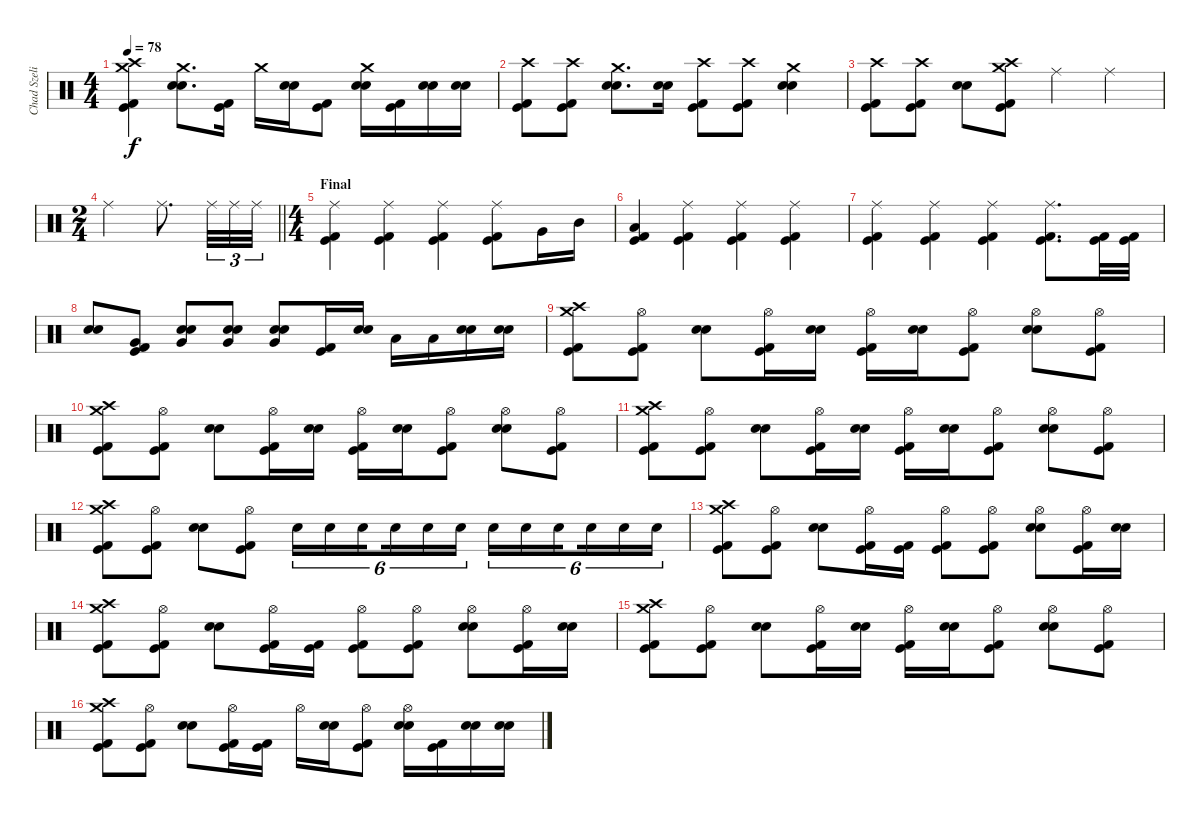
\track ("Chad Szeliga" "Chad Szeli") {instrument percussion}
\staff {score}
\articulation defaults
\ts (4 4)
\tempo 78
\clef neutral
\ks c
("Crash high (hit)" "Kick (hit) 2" "Kick (hit)" "Crash medium (hit)").4{dy f} ("Crash medium (hit)" "Snare (hit) 2" "Snare (hit) 2").8{d} ("Kick (hit) 2" "Kick (hit)").16 "Crash medium (hit)".16 ("Snare (hit) 2" "Snare (hit) 2").16 ("Kick (hit) 2" "Kick (hit)").8 ("Crash medium (hit)" "Snare (hit) 2" "Snare (hit) 2").16 ("Kick (hit) 2" "Kick (hit)").16 ("Snare (hit) 2" "Snare (hit) 2").16 ("Snare (hit) 2" "Snare (hit) 2").16 |
("Crash high (hit)" "Kick (hit) 2" "Kick (hit)").8 ("Crash high (hit)" "Kick (hit) 2" "Kick (hit)").8 ("Crash medium (hit)" "Snare (hit) 2" "Snare (hit) 2").8{d} ("Snare (hit) 2" "Snare (hit) 2").16 ("Crash high (hit)" "Kick (hit) 2" "Kick (hit)").8 ("Crash high (hit)" "Kick (hit) 2" "Kick (hit)").8 ("Crash medium (hit)" "Snare (hit) 2" "Snare (hit) 2").4 |
("Crash high (hit)" "Kick (hit) 2" "Kick (hit)").8 ("Crash high (hit)" "Kick (hit) 2" "Kick (hit)").8 ("Snare (hit) 2" "Snare (hit) 2").8 ("Crash high (hit)" "Kick (hit) 2" "Kick (hit)" "Crash medium (hit)").8 "Ride (middle)".4 "Ride (middle)".4 |
\ts (2 4)
\barLineRight lightlight "Ride (middle)".4 "Ride (middle)".8{d} "Ride (middle)".32{tu (3 2)} "Ride (middle)".32{tu (3 2)} "Ride (middle)".32{tu (3 2)}
|
\ts (4 4)
\section ("" "Final")
("Ride (middle)" "Kick (hit) 2" "Kick (hit)").4 ("Ride (middle)" "Kick (hit) 2" "Kick (hit)").4 ("Ride (middle)" "Kick (hit) 2" "Kick (hit)").4 ("Ride (middle)" "Kick (hit) 2" "Kick (hit)").8 "Very Low Tom (hit)".16 "Mid Tom (hit)".16 |
("Kick (hit) 2" "Kick (hit)" "Low Tom (hit)").4 ("Ride (middle)" "Kick (hit) 2" "Kick (hit)").4 ("Ride (middle)" "Kick (hit) 2" "Kick (hit)").4 ("Ride (middle)" "Kick (hit) 2" "Kick (hit)").4 |
("Ride (middle)" "Kick (hit) 2" "Kick (hit)").4 ("Ride (middle)" "Kick (hit) 2" "Kick (hit)").4 ("Ride (middle)" "Kick (hit) 2" "Kick (hit)").4 ("Ride (middle)" "Kick (hit) 2" "Kick (hit)").8{d} ("Kick (hit) 2" "Kick (hit)").32 ("Kick (hit) 2" "Kick (hit)").32 |
("Snare (hit) 2" "Snare (hit) 2").8 ("Kick (hit) 2" "Kick (hit)" "Very Low Tom (hit)").8 ("Snare (hit) 2" "Snare (hit) 2" "Very Low Tom (hit)").8 ("Snare (hit) 2" "Snare (hit) 2" "Very Low Tom (hit)").8 ("Snare (hit) 2" "Snare (hit) 2" "Very Low Tom (hit)").8 ("Kick (hit) 2" "Kick (hit)").16 ("Snare (hit) 2" "Snare (hit) 2").16 "Low Tom (hit)".16 "Low Tom (hit)".16 ("Snare (hit) 2" "Snare (hit) 2").16 ("Snare (hit) 2" "Snare (hit) 2").16 |
("Crash high (hit)" "Kick (hit) 2" "Kick (hit)" "Crash medium (hit)").8 ("Kick (hit) 2" "Kick (hit)" "Hi-Hat (open)").8 ("Snare (hit) 2" "Snare (hit) 2").8 ("Kick (hit) 2" "Kick (hit)" "Hi-Hat (open)").16 ("Snare (hit) 2" "Snare (hit) 2").16 ("Kick (hit) 2" "Kick (hit)" "Hi-Hat (open)").16 ("Snare (hit) 2" "Snare (hit) 2").16 ("Kick (hit) 2" "Kick (hit)" "Hi-Hat (open)").8 ("Snare (hit) 2" "Snare (hit) 2" "Hi-Hat (open)").8 ("Kick (hit) 2" "Kick (hit)" "Hi-Hat (open)").8 |
("Crash high (hit)" "Kick (hit) 2" "Kick (hit)" "Crash medium (hit)").8 ("Kick (hit) 2" "Kick (hit)" "Hi-Hat (open)").8 ("Snare (hit) 2" "Snare (hit) 2").8 ("Kick (hit) 2" "Kick (hit)" "Hi-Hat (open)").16 ("Snare (hit) 2" "Snare (hit) 2").16 ("Kick (hit) 2" "Kick (hit)" "Hi-Hat (open)").16 ("Snare (hit) 2" "Snare (hit) 2").16 ("Kick (hit) 2" "Kick (hit)" "Hi-Hat (open)").8 ("Snare (hit) 2" "Snare (hit) 2" "Hi-Hat (open)").8 ("Kick (hit) 2" "Kick (hit)" "Hi-Hat (open)").8 |
("Crash high (hit)" "Kick (hit) 2" "Kick (hit)" "Crash medium (hit)").8 ("Kick (hit) 2" "Kick (hit)" "Hi-Hat (open)").8 ("Snare (hit) 2" "Snare (hit) 2").8 ("Kick (hit) 2" "Kick (hit)" "Hi-Hat (open)").16 ("Snare (hit) 2" "Snare (hit) 2").16 ("Kick (hit) 2" "Kick (hit)" "Hi-Hat (open)").16 ("Snare (hit) 2" "Snare (hit) 2").16 ("Kick (hit) 2" "Kick (hit)" "Hi-Hat (open)").8 ("Snare (hit) 2" "Snare (hit) 2" "Hi-Hat (open)").8 ("Kick (hit) 2" "Kick (hit)" "Hi-Hat (open)").8 |
("Crash high (hit)" "Kick (hit) 2" "Kick (hit)" "Crash medium (hit)").8 ("Kick (hit) 2" "Kick (hit)" "Hi-Hat (open)").8 ("Snare (hit) 2" "Snare (hit) 2").8 ("Kick (hit) 2" "Kick (hit)" "Hi-Hat (open)").8 "Snare (hit) 2".16{tu (6 4)} "Snare (hit) 2".16{tu (6 4)} "Snare (hit) 2".16{tu (6 4) beam splitsecondary} "Snare (hit) 2".16{tu (6 4)} "Snare (hit) 2".16{tu (6 4)} "Snare (hit) 2".16{tu (6 4)} "Snare (hit) 2".16{tu (6 4)} "Snare (hit) 2".16{tu (6 4)} "Snare (hit) 2".16{tu (6 4) beam splitsecondary} "Snare (hit) 2".16{tu (6 4)} "Snare (hit) 2".16{tu (6 4)} "Snare (hit) 2".16{tu (6 4)} |
("Crash high (hit)" "Kick (hit) 2" "Kick (hit)" "Crash medium (hit)").8 ("Kick (hit) 2" "Kick (hit)" "Hi-Hat (open)").8 ("Snare (hit) 2" "Snare (hit) 2").8 ("Kick (hit) 2" "Kick (hit)" "Hi-Hat (open)").16 ("Kick (hit) 2" "Kick (hit)").16 ("Kick (hit) 2" "Kick (hit)" "Hi-Hat (open)").8 ("Kick (hit) 2" "Kick (hit)" "Hi-Hat (open)").8 ("Snare (hit) 2" "Snare (hit) 2" "Hi-Hat (open)").8 ("Kick (hit) 2" "Kick (hit)" "Hi-Hat (open)").16 ("Snare (hit) 2" "Snare (hit) 2").16 |
("Crash high (hit)" "Kick (hit) 2" "Kick (hit)" "Crash medium (hit)").8 ("Kick (hit) 2" "Kick (hit)" "Hi-Hat (open)").8 ("Snare (hit) 2" "Snare (hit) 2").8 ("Kick (hit) 2" "Kick (hit)" "Hi-Hat (open)").16 ("Kick (hit) 2" "Kick (hit)").16 ("Kick (hit) 2" "Kick (hit)" "Hi-Hat (open)").8 ("Kick (hit) 2" "Kick (hit)" "Hi-Hat (open)").8 ("Snare (hit) 2" "Snare (hit) 2" "Hi-Hat (open)").8 ("Kick (hit) 2" "Kick (hit)" "Hi-Hat (open)").16 ("Snare (hit) 2" "Snare (hit) 2").16 |
("Crash high (hit)" "Kick (hit) 2" "Kick (hit)" "Crash medium (hit)").8 ("Kick (hit) 2" "Kick (hit)" "Hi-Hat (open)").8 ("Snare (hit) 2" "Snare (hit) 2").8 ("Kick (hit) 2" "Kick (hit)" "Hi-Hat (open)").16 ("Snare (hit) 2" "Snare (hit) 2").16 ("Kick (hit) 2" "Kick (hit)" "Hi-Hat (open)").16 ("Snare (hit) 2" "Snare (hit) 2").16 ("Kick (hit) 2" "Kick (hit)" "Hi-Hat (open)").8 ("Snare (hit) 2" "Snare (hit) 2" "Hi-Hat (open)").8 ("Kick (hit) 2" "Kick (hit)" "Hi-Hat (open)").8 |
("Crash high (hit)" "Kick (hit) 2" "Kick (hit)" "Crash medium (hit)").8 ("Kick (hit) 2" "Kick (hit)" "Hi-Hat (open)").8 ("Snare (hit) 2" "Snare (hit) 2").8 ("Kick (hit) 2" "Kick (hit)" "Hi-Hat (open)").16 ("Kick (hit) 2" "Kick (hit)").16 "Hi-Hat (open)".16 ("Snare (hit) 2" "Snare (hit) 2").16 ("Kick (hit) 2" "Kick (hit)" "Hi-Hat (open)").8 ("Snare (hit) 2" "Snare (hit) 2" "Hi-Hat (open)").16 ("Kick (hit) 2" "Kick (hit)").16 ("Snare (hit) 2" "Snare (hit) 2").16 ("Snare (hit) 2" "Snare (hit) 2").16
